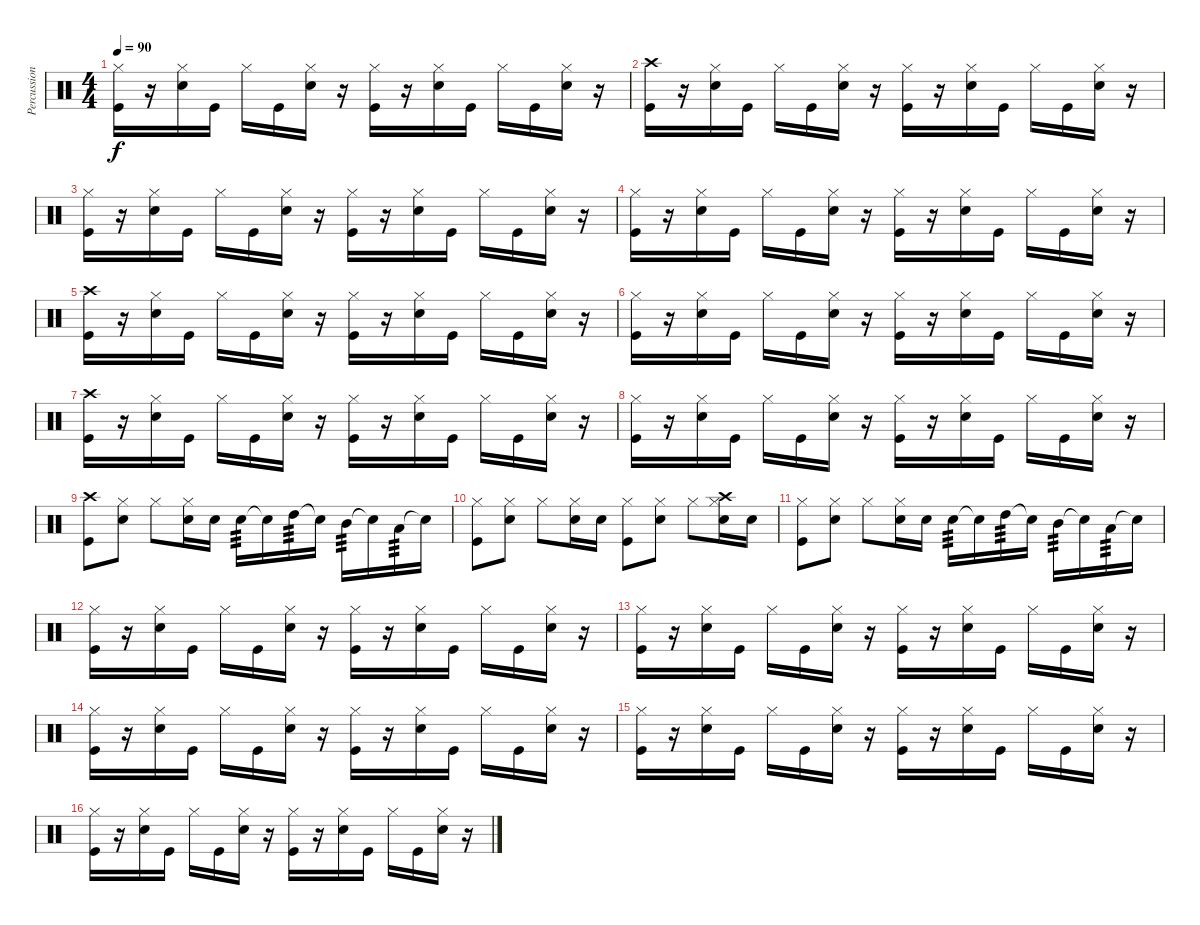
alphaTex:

\track ("Percussion" "Percussion") {instrument percussion}
\staff {score}
\articulation defaults
\ts (4 4)
\tempo 90
\clef neutral
\ks c
("Hi-Hat (closed)" "Kick (hit)").16{dy f} r.16 ("Hi-Hat (closed)" "Electric Snare (hit)").16 "Kick (hit)".16 "Hi-Hat (closed)".16 "Kick (hit)".16 ("Hi-Hat (closed)" "Electric Snare (hit)").16 r.16 ("Hi-Hat (closed)" "Kick (hit)").16 r.16 ("Hi-Hat (closed)" "Electric Snare (hit)").16 "Kick (hit)".16 "Hi-Hat (closed)".16 "Kick (hit)".16 ("Hi-Hat (closed)" "Electric Snare (hit)").16 r.16 |
("Crash high (hit)" "Kick (hit)").16 r.16 ("Hi-Hat (closed)" "Electric Snare (hit)").16 "Kick (hit)".16 "Hi-Hat (closed)".16 "Kick (hit)".16 ("Hi-Hat (closed)" "Electric Snare (hit)").16 r.16 ("Hi-Hat (closed)" "Kick (hit)").16 r.16 ("Hi-Hat (closed)" "Electric Snare (hit)").16 "Kick (hit)".16 "Hi-Hat (closed)".16 "Kick (hit)".16 ("Hi-Hat (closed)" "Electric Snare (hit)").16 r.16 |
("Hi-Hat (closed)" "Kick (hit)").16 r.16 ("Hi-Hat (closed)" "Electric Snare (hit)").16 "Kick (hit)".16 "Hi-Hat (closed)".16 "Kick (hit)".16 ("Hi-Hat (closed)" "Electric Snare (hit)").16 r.16 ("Hi-Hat (closed)" "Kick (hit)").16 r.16 ("Hi-Hat (closed)" "Electric Snare (hit)").16 "Kick (hit)".16 "Hi-Hat (closed)".16 "Kick (hit)".16 ("Hi-Hat (closed)" "Electric Snare (hit)").16 r.16 |
("Hi-Hat (closed)" "Kick (hit)").16 r.16 ("Hi-Hat (closed)" "Electric Snare (hit)").16 "Kick (hit)".16 "Hi-Hat (closed)".16 "Kick (hit)".16 ("Hi-Hat (closed)" "Electric Snare (hit)").16 r.16 ("Hi-Hat (closed)" "Kick (hit)").16 r.16 ("Hi-Hat (closed)" "Electric Snare (hit)").16 "Kick (hit)".16 "Hi-Hat (closed)".16 "Kick (hit)".16 ("Hi-Hat (closed)" "Electric Snare (hit)").16 r.16 |
("Crash high (hit)" "Kick (hit)").16 r.16 ("Hi-Hat (closed)" "Electric Snare (hit)").16 "Kick (hit)".16 "Hi-Hat (closed)".16 "Kick (hit)".16 ("Hi-Hat (closed)" "Electric Snare (hit)").16 r.16 ("Hi-Hat (closed)" "Kick (hit)").16 r.16 ("Hi-Hat (closed)" "Electric Snare (hit)").16 "Kick (hit)".16 "Hi-Hat (closed)".16 "Kick (hit)".16 ("Hi-Hat (closed)" "Electric Snare (hit)").16 r.16 |
("Hi-Hat (closed)" "Kick (hit)").16 r.16 ("Hi-Hat (closed)" "Electric Snare (hit)").16 "Kick (hit)".16 "Hi-Hat (closed)".16 "Kick (hit)".16 ("Hi-Hat (closed)" "Electric Snare (hit)").16 r.16 ("Hi-Hat (closed)" "Kick (hit)").16 r.16 ("Hi-Hat (closed)" "Electric Snare (hit)").16 "Kick (hit)".16 "Hi-Hat (closed)".16 "Kick (hit)".16 ("Hi-Hat (closed)" "Electric Snare (hit)").16 r.16 |
("Crash high (hit)" "Kick (hit)").16 r.16 ("Hi-Hat (closed)" "Electric Snare (hit)").16 "Kick (hit)".16 "Hi-Hat (closed)".16 "Kick (hit)".16 ("Hi-Hat (closed)" "Electric Snare (hit)").16 r.16 ("Hi-Hat (closed)" "Kick (hit)").16 r.16 ("Hi-Hat (closed)" "Electric Snare (hit)").16 "Kick (hit)".16 "Hi-Hat (closed)".16 "Kick (hit)".16 ("Hi-Hat (closed)" "Electric Snare (hit)").16 r.16 |
("Hi-Hat (closed)" "Kick (hit)").16 r.16 ("Hi-Hat (closed)" "Electric Snare (hit)").16 "Kick (hit)".16 "Hi-Hat (closed)".16 "Kick (hit)".16 ("Hi-Hat (closed)" "Electric Snare (hit)").16 r.16 ("Hi-Hat (closed)" "Kick (hit)").16 r.16 ("Hi-Hat (closed)" "Electric Snare (hit)").16 "Kick (hit)".16 "Hi-Hat (closed)".16 "Kick (hit)".16 ("Hi-Hat (closed)" "Electric Snare (hit)").16 r.16 |
("Crash high (hit)" "Kick (hit)").8{volume 16} ("Hi-Hat (closed)" "Electric Snare (hit)").8 "Hi-Hat (closed)".8 ("Hi-Hat (closed)" "Electric Snare (hit)").16 "Electric Snare (hit)".16 "Electric Snare (hit)".16{tp 3} "Snare (hit)"{t}.16 "High Tom (hit)".16{tp 3} "Snare (hit)"{t}.16 "Mid Tom (hit)".16{tp 3} "Snare (hit)"{t}.16 "Low Tom (hit)".16{tp 3} "Snare (hit)"{t}.16 |
("Hi-Hat (closed)" "Kick (hit)").8{volume 16} ("Hi-Hat (closed)" "Electric Snare (hit)").8 "Hi-Hat (closed)".8 ("Hi-Hat (closed)" "Electric Snare (hit)").16 "Electric Snare (hit)".16 ("Hi-Hat (closed)" "Kick (hit)").8 ("Hi-Hat (closed)" "Electric Snare (hit)").8 "Hi-Hat (closed)".8 ("Hi-Hat (closed)" "Crash high (hit)" "Electric Snare (hit)").16 "Electric Snare (hit)".16 |
("Hi-Hat (closed)" "Kick (hit)").8{volume 16} ("Hi-Hat (closed)" "Electric Snare (hit)").8 "Hi-Hat (closed)".8 ("Hi-Hat (closed)" "Electric Snare (hit)").16 "Electric Snare (hit)".16 "Electric Snare (hit)".16{tp 3} "Snare (hit)"{t}.16 "High Tom (hit)".16{tp 3} "Snare (hit)"{t}.16 "Mid Tom (hit)".16{tp 3} "Snare (hit)"{t}.16 "Low Tom (hit)".16{tp 3} "Snare (hit)"{t}.16 |
("Hi-Hat (closed)" "Kick (hit)").16 r.16 ("Hi-Hat (closed)" "Electric Snare (hit)").16 "Kick (hit)".16 "Hi-Hat (closed)".16 "Kick (hit)".16 ("Hi-Hat (closed)" "Electric Snare (hit)").16 r.16 ("Hi-Hat (closed)" "Kick (hit)").16 r.16 ("Hi-Hat (closed)" "Electric Snare (hit)").16 "Kick (hit)".16 "Hi-Hat (closed)".16 "Kick (hit)".16 ("Hi-Hat (closed)" "Electric Snare (hit)").16 r.16 |
("Hi-Hat (closed)" "Kick (hit)").16 r.16 ("Hi-Hat (closed)" "Electric Snare (hit)").16 "Kick (hit)".16 "Hi-Hat (closed)".16 "Kick (hit)".16 ("Hi-Hat (closed)" "Electric Snare (hit)").16 r.16 ("Hi-Hat (closed)" "Kick (hit)").16 r.16 ("Hi-Hat (closed)" "Electric Snare (hit)").16 "Kick (hit)".16 "Hi-Hat (closed)".16 "Kick (hit)".16 ("Hi-Hat (closed)" "Electric Snare (hit)").16 r.16 |
("Hi-Hat (closed)" "Kick (hit)").16 r.16 ("Hi-Hat (closed)" "Electric Snare (hit)").16 "Kick (hit)".16 "Hi-Hat (closed)".16 "Kick (hit)".16 ("Hi-Hat (closed)" "Electric Snare (hit)").16 r.16 ("Hi-Hat (closed)" "Kick (hit)").16 r.16 ("Hi-Hat (closed)" "Electric Snare (hit)").16 "Kick (hit)".16 "Hi-Hat (closed)".16 "Kick (hit)".16 ("Hi-Hat (closed)" "Electric Snare (hit)").16 r.16 |
("Hi-Hat (closed)" "Kick (hit)").16 r.16 ("Hi-Hat (closed)" "Electric Snare (hit)").16 "Kick (hit)".16 "Hi-Hat (closed)".16 "Kick (hit)".16 ("Hi-Hat (closed)" "Electric Snare (hit)").16 r.16 ("Hi-Hat (closed)" "Kick (hit)").16 r.16 ("Hi-Hat (closed)" "Electric Snare (hit)").16 "Kick (hit)".16 "Hi-Hat (closed)".16 "Kick (hit)".16 ("Hi-Hat (closed)" "Electric Snare (hit)").16 r.16 |
("Hi-Hat (closed)" "Kick (hit)").16 r.16 ("Hi-Hat (closed)" "Electric Snare (hit)").16 "Kick (hit)".16 "Hi-Hat (closed)".16 "Kick (hit)".16 ("Hi-Hat (closed)" "Electric Snare (hit)").16 r.16 ("Hi-Hat (closed)" "Kick (hit)").16 r.16 ("Hi-Hat (closed)" "Electric Snare (hit)").16 "Kick (hit)".16 "Hi-Hat (closed)".16 "Kick (hit)".16 ("Hi-Hat (closed)" "Electric Snare (hit)").16 r.16
